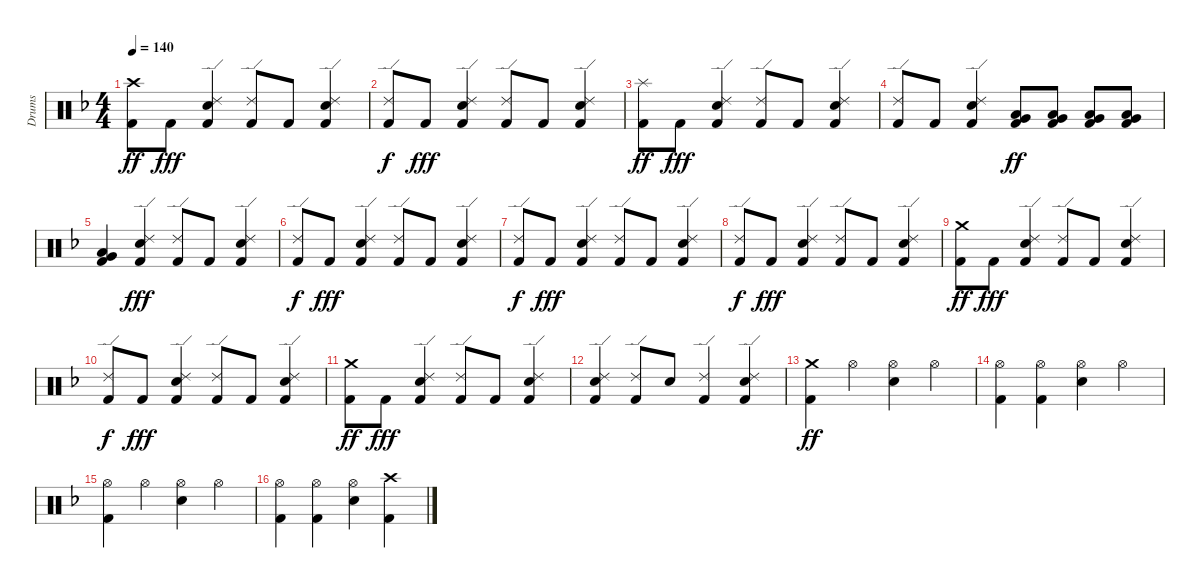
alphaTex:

\track ("Drums" "Drums") {instrument percussion}
\staff {score}
\articulation defaults
\ts (4 4)
\tempo 140
\clef neutral
\ks dminor
("Kick (hit) 2" "Crash high (hit)").8{dy ff} "Kick (hit) 2".8{dy fff} ("Kick (hit) 2" "Electric Snare (hit)" "Ride (edge) 2").4 ("Kick (hit) 2" "Ride (edge) 2").8 "Kick (hit) 2".8 ("Kick (hit) 2" "Electric Snare (hit)" "Ride (edge) 2").4 |
("Kick (hit) 2" "Ride (edge) 2").8{dy f} "Kick (hit) 2".8{dy fff} ("Kick (hit) 2" "Electric Snare (hit)" "Ride (edge) 2").4 ("Kick (hit) 2" "Ride (edge) 2").8 "Kick (hit) 2".8 ("Kick (hit) 2" "Electric Snare (hit)" "Ride (edge) 2").4 |
("Kick (hit) 2" "Splash (hit)").8{dy ff} "Kick (hit) 2".8{dy fff} ("Kick (hit) 2" "Electric Snare (hit)" "Ride (edge) 2").4 ("Kick (hit) 2" "Ride (edge) 2").8 "Kick (hit) 2".8 ("Kick (hit) 2" "Electric Snare (hit)" "Ride (edge) 2").4 |
("Kick (hit) 2" "Ride (edge) 2").8 "Kick (hit) 2".8 ("Kick (hit) 2" "Electric Snare (hit)" "Ride (edge) 2").4 ("Very Low Tom (hit)" "Low Tom (hit)" "Kick (hit) 2").8{dy ff} ("Very Low Tom (hit)" "Low Tom (hit)" "Kick (hit) 2").8 ("Very Low Tom (hit)" "Low Tom (hit)" "Kick (hit) 2").8 ("Very Low Tom (hit)" "Low Tom (hit)" "Kick (hit) 2").8 |
("Very Low Tom (hit)" "Low Tom (hit)" "Kick (hit) 2").4 ("Kick (hit) 2" "Electric Snare (hit)" "Ride (edge) 2").4{dy fff} ("Kick (hit) 2" "Ride (edge) 2").8 "Kick (hit) 2".8 ("Kick (hit) 2" "Electric Snare (hit)" "Ride (edge) 2").4 |
("Kick (hit) 2" "Ride (edge) 2").8{dy f} "Kick (hit) 2".8{dy fff} ("Kick (hit) 2" "Electric Snare (hit)" "Ride (edge) 2").4 ("Kick (hit) 2" "Ride (edge) 2").8 "Kick (hit) 2".8 ("Kick (hit) 2" "Electric Snare (hit)" "Ride (edge) 2").4 |
("Kick (hit) 2" "Ride (edge) 2").8{dy f} "Kick (hit) 2".8{dy fff} ("Kick (hit) 2" "Electric Snare (hit)" "Ride (edge) 2").4 ("Kick (hit) 2" "Ride (edge) 2").8 "Kick (hit) 2".8 ("Kick (hit) 2" "Electric Snare (hit)" "Ride (edge) 2").4 |
("Kick (hit) 2" "Ride (edge) 2").8{dy f} "Kick (hit) 2".8{dy fff} ("Kick (hit) 2" "Electric Snare (hit)" "Ride (edge) 2").4 ("Kick (hit) 2" "Ride (edge) 2").8 "Kick (hit) 2".8 ("Kick (hit) 2" "Electric Snare (hit)" "Ride (edge) 2").4 |
("Kick (hit) 2" "Crash medium (hit)").8{dy ff} "Kick (hit) 2".8{dy fff} ("Kick (hit) 2" "Electric Snare (hit)" "Ride (edge) 2").4 ("Kick (hit) 2" "Ride (edge) 2").8 "Kick (hit) 2".8 ("Kick (hit) 2" "Electric Snare (hit)" "Ride (edge) 2").4 |
("Kick (hit) 2" "Ride (edge) 2").8{dy f} "Kick (hit) 2".8{dy fff} ("Kick (hit) 2" "Electric Snare (hit)" "Ride (edge) 2").4 ("Kick (hit) 2" "Ride (edge) 2").8 "Kick (hit) 2".8 ("Kick (hit) 2" "Electric Snare (hit)" "Ride (edge) 2").4 |
("Kick (hit) 2" "Crash medium (hit)").8{dy ff} "Kick (hit) 2".8{dy fff} ("Kick (hit) 2" "Electric Snare (hit)" "Ride (edge) 2").4 ("Kick (hit) 2" "Ride (edge) 2").8 "Kick (hit) 2".8 ("Kick (hit) 2" "Electric Snare (hit)" "Ride (edge) 2").4 |
("Electric Snare (hit)" "Kick (hit) 2" "Ride (edge) 2").4 ("Kick (hit) 2" "Ride (edge) 2").8 "Electric Snare (hit)".8 ("Kick (hit) 2" "Ride (edge) 2").4 ("Electric Snare (hit)" "Kick (hit) 2" "Ride (edge) 2").4 |
("Crash medium (hit)" "Kick (hit) 2").4{dy ff} "Hi-Hat (open)".4 ("Hi-Hat (open)" "Electric Snare (hit)").4 "Hi-Hat (open)".4 |
("Hi-Hat (open)" "Kick (hit) 2").4 ("Hi-Hat (open)" "Kick (hit) 2").4 ("Hi-Hat (open)" "Electric Snare (hit)").4 "Hi-Hat (open)".4 |
("Hi-Hat (open)" "Kick (hit) 2").4 "Hi-Hat (open)".4 ("Hi-Hat (open)" "Electric Snare (hit)").4 "Hi-Hat (open)".4 |
("Hi-Hat (open)" "Kick (hit) 2").4 ("Hi-Hat (open)" "Kick (hit) 2").4 ("Hi-Hat (open)" "Electric Snare (hit)").4 ("Crash high (hit)" "Kick (hit) 2").4
